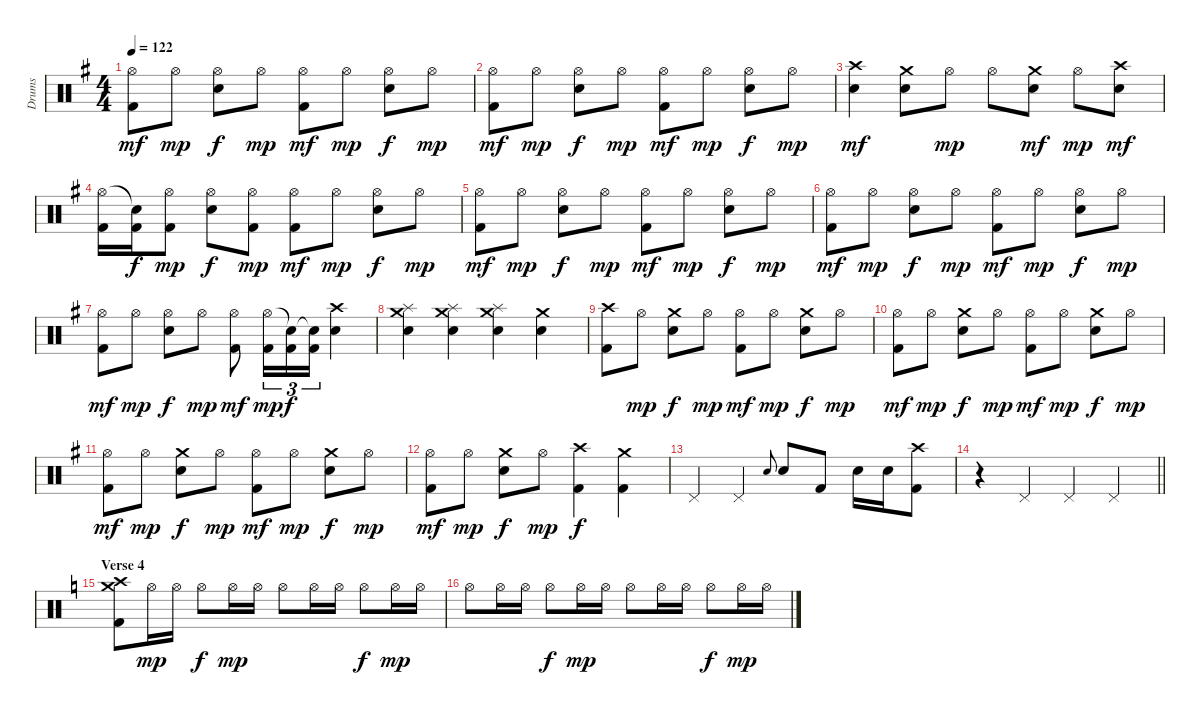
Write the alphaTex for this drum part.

\track ("Drums" "Drums") {instrument percussion}
\staff {score}
\articulation defaults
\ts (4 4)
\tempo 122
\clef neutral
\ks g
("Hi-Hat (open)" "Kick (hit) 2").8{dy mf} "Hi-Hat (open)".8{dy mp} ("Hi-Hat (open)" "Electric Snare (hit)").8{dy f} "Hi-Hat (open)".8{dy mp} ("Hi-Hat (open)" "Kick (hit) 2").8{dy mf} "Hi-Hat (open)".8{dy mp} ("Hi-Hat (open)" "Electric Snare (hit)").8{dy f} "Hi-Hat (open)".8{dy mp} |
("Hi-Hat (open)" "Kick (hit) 2").8{dy mf} "Hi-Hat (open)".8{dy mp} ("Hi-Hat (open)" "Electric Snare (hit)").8{dy f} "Hi-Hat (open)".8{dy mp} ("Hi-Hat (open)" "Kick (hit) 2").8{dy mf} "Hi-Hat (open)".8{dy mp} ("Hi-Hat (open)" "Electric Snare (hit)").8{dy f} "Hi-Hat (open)".8{dy mp} |
("Crash high (hit)" "Electric Snare (hit)").4{dy mf} ("Crash medium (hit)" "Electric Snare (hit)").8 "Hi-Hat (open)".8{dy mp} "Hi-Hat (open)".8 ("Crash medium (hit)" "Electric Snare (hit)").8{dy mf} "Hi-Hat (open)".8{dy mp} ("Crash high (hit)" "Electric Snare (hit)").8{dy mf} |
("Hi-Hat (open)" "Kick (hit) 2").16 ("Snare (hit)"{t} "Kick (hit) 2").16{dy f} ("Hi-Hat (open)" "Kick (hit) 2").8{dy mp} ("Hi-Hat (open)" "Electric Snare (hit)").8{dy f} ("Hi-Hat (open)" "Kick (hit) 2").8{dy mp} ("Hi-Hat (open)" "Kick (hit) 2").8{dy mf} "Hi-Hat (open)".8{dy mp} ("Hi-Hat (open)" "Electric Snare (hit)").8{dy f} "Hi-Hat (open)".8{dy mp} |
("Hi-Hat (open)" "Kick (hit) 2").8{dy mf} "Hi-Hat (open)".8{dy mp} ("Hi-Hat (open)" "Electric Snare (hit)").8{dy f} "Hi-Hat (open)".8{dy mp} ("Hi-Hat (open)" "Kick (hit) 2").8{dy mf} "Hi-Hat (open)".8{dy mp} ("Hi-Hat (open)" "Electric Snare (hit)").8{dy f} "Hi-Hat (open)".8{dy mp} |
("Hi-Hat (open)" "Kick (hit) 2").8{dy mf} "Hi-Hat (open)".8{dy mp} ("Hi-Hat (open)" "Electric Snare (hit)").8{dy f} "Hi-Hat (open)".8{dy mp} ("Hi-Hat (open)" "Kick (hit) 2").8{dy mf} "Hi-Hat (open)".8{dy mp} ("Hi-Hat (open)" "Electric Snare (hit)").8{dy f} "Hi-Hat (open)".8{dy mp} |
("Hi-Hat (open)" "Kick (hit) 2").8{dy mf} "Hi-Hat (open)".8{dy mp} ("Hi-Hat (open)" "Electric Snare (hit)").8{dy f} "Hi-Hat (open)".8{dy mp} ("Hi-Hat (open)" "Kick (hit) 2").8{dy mf} ("Hi-Hat (open)" "Kick (hit) 2").16{tu (3 2) dy mp} ("Snare (hit)"{t} "Kick (hit) 2").16{tu (3 2) dy f} ("Snare (hit)"{t} "Kick (hit) 2").16{tu (3 2)} ("Crash high (hit)" "Electric Snare (hit)").4 |
("Crash medium (hit)" "Splash (hit)" "Electric Snare (hit)").4 ("Crash medium (hit)" "Splash (hit)" "Electric Snare (hit)").4 ("Crash medium (hit)" "Splash (hit)" "Electric Snare (hit)").4 ("Crash medium (hit)" "Electric Snare (hit)").4 |
("Crash high (hit)" "Kick (hit) 2").8 "Hi-Hat (open)".8{dy mp} ("Crash medium (hit)" "Electric Snare (hit)").8{dy f} "Hi-Hat (open)".8{dy mp} ("Hi-Hat (open)" "Kick (hit) 2").8{dy mf} "Hi-Hat (open)".8{dy mp} ("Crash medium (hit)" "Electric Snare (hit)").8{dy f} "Hi-Hat (open)".8{dy mp} |
("Hi-Hat (open)" "Kick (hit) 2").8{dy mf} "Hi-Hat (open)".8{dy mp} ("Crash medium (hit)" "Electric Snare (hit)").8{dy f} "Hi-Hat (open)".8{dy mp} ("Hi-Hat (open)" "Kick (hit) 2").8{dy mf} "Hi-Hat (open)".8{dy mp} ("Crash medium (hit)" "Electric Snare (hit)").8{dy f} "Hi-Hat (open)".8{dy mp} |
("Hi-Hat (open)" "Kick (hit) 2").8{dy mf} "Hi-Hat (open)".8{dy mp} ("Crash medium (hit)" "Electric Snare (hit)").8{dy f} "Hi-Hat (open)".8{dy mp} ("Hi-Hat (open)" "Kick (hit) 2").8{dy mf} "Hi-Hat (open)".8{dy mp} ("Crash medium (hit)" "Electric Snare (hit)").8{dy f} "Hi-Hat (open)".8{dy mp} |
("Hi-Hat (open)" "Kick (hit) 2").8{dy mf} "Hi-Hat (open)".8{dy mp} ("Crash medium (hit)" "Electric Snare (hit)").8{dy f} "Hi-Hat (open)".8{dy mp} ("Crash high (hit)" "Kick (hit) 2").4{dy f} ("Crash medium (hit)" "Kick (hit) 2").4 |
"Pedal Hi-Hat (hit)".4 "Pedal Hi-Hat (hit)".4 "Electric Snare (hit)".8{gr onbeat} "Electric Snare (hit)".8 "Kick (hit) 2".8 "Electric Snare (hit)".16 "Electric Snare (hit)".16 ("Crash high (hit)" "Kick (hit) 2").8 |
\barLineRight lightlight
r.4 "Pedal Hi-Hat (hit)".4 "Pedal Hi-Hat (hit)".4 "Pedal Hi-Hat (hit)".4 |
\section ("" "Verse 4")
\ks c
("Crash medium (hit)" "Crash high (hit)" "Kick (hit) 2").8 "Hi-Hat (open)".16{dy mp} "Hi-Hat (open)".16 "Hi-Hat (open)".8{dy f} "Hi-Hat (open)".16{dy mp} "Hi-Hat (open)".16 "Hi-Hat (open)".8 "Hi-Hat (open)".16 "Hi-Hat (open)".16 "Hi-Hat (open)".8{dy f} "Hi-Hat (open)".16{dy mp} "Hi-Hat (open)".16 |
"Hi-Hat (open)".8 "Hi-Hat (open)".16 "Hi-Hat (open)".16 "Hi-Hat (open)".8{dy f} "Hi-Hat (open)".16{dy mp} "Hi-Hat (open)".16 "Hi-Hat (open)".8 "Hi-Hat (open)".16 "Hi-Hat (open)".16 "Hi-Hat (open)".8{dy f} "Hi-Hat (open)".16{dy mp} "Hi-Hat (open)".16
